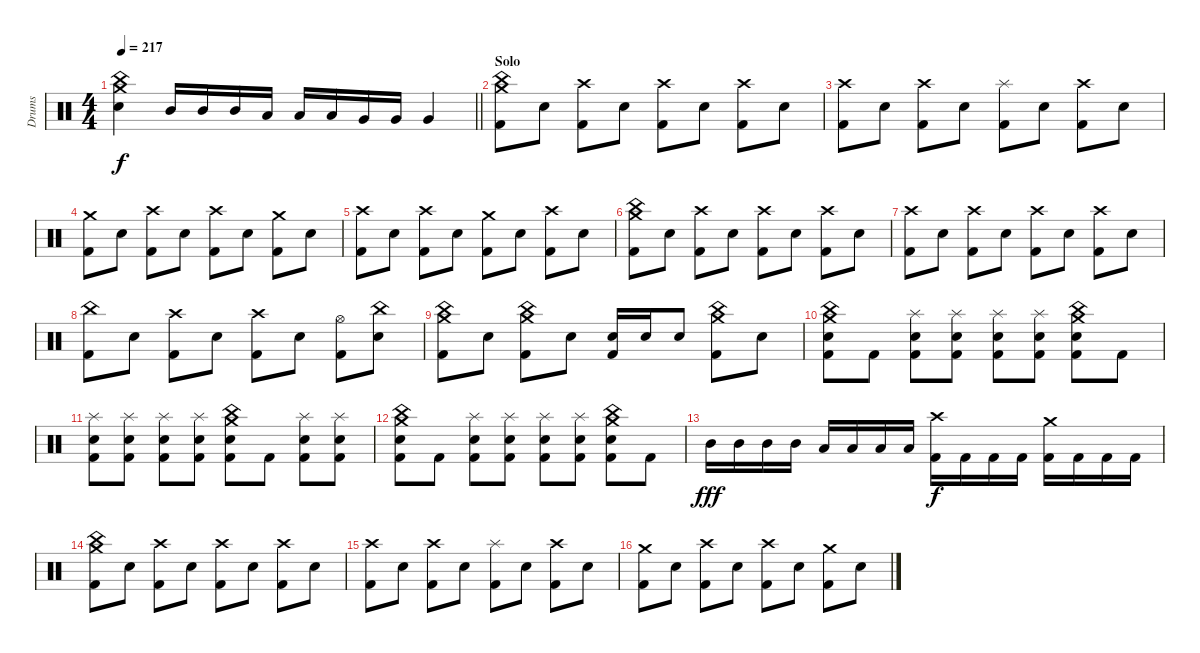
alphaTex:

\track ("Drums" "Drums") {instrument percussion}
\staff {score}
\articulation defaults
\ts (4 4)
\tempo 217
\clef neutral
\barLineRight lightlight
\ks c
("China (hit)" "Crash medium (hit)" "Electric Snare (hit)").4{dy f} "Mid Tom (hit)".16 "Mid Tom (hit)".16 "Mid Tom (hit)".16 "Low Tom (hit)".16 "Low Tom (hit)".16 "Low Tom (hit)".16 "Very Low Tom (hit)".16 "Very Low Tom (hit)".16 "Very Low Tom (hit)".4 |
\section ("" "Solo")
("China (hit)" "Crash medium (hit)" "Kick (hit) 2").8 "Electric Snare (hit)".8 ("Crash high (hit)" "Kick (hit) 2").8 "Electric Snare (hit)".8 ("Crash high (hit)" "Kick (hit) 2").8 "Electric Snare (hit)".8 ("Crash high (hit)" "Kick (hit) 2").8 "Electric Snare (hit)".8 |
("Crash high (hit)" "Kick (hit) 2").8 "Electric Snare (hit)".8 ("Crash high (hit)" "Kick (hit) 2").8 "Electric Snare (hit)".8 ("Splash (hit)" "Kick (hit) 2").8 "Electric Snare (hit)".8 ("Crash high (hit)" "Kick (hit) 2").8 "Electric Snare (hit)".8 |
("Crash medium (hit)" "Kick (hit) 2").8 "Electric Snare (hit)".8 ("Crash high (hit)" "Kick (hit) 2").8 "Electric Snare (hit)".8 ("Crash high (hit)" "Kick (hit) 2").8 "Electric Snare (hit)".8 ("Crash medium (hit)" "Kick (hit) 2").8 "Electric Snare (hit)".8 |
("Crash high (hit)" "Kick (hit) 2").8 "Electric Snare (hit)".8 ("Crash high (hit)" "Kick (hit) 2").8 "Electric Snare (hit)".8 ("Crash medium (hit)" "Kick (hit) 2").8 "Electric Snare (hit)".8 ("Crash high (hit)" "Kick (hit) 2").8 "Electric Snare (hit)".8 |
("China (hit)" "Crash medium (hit)" "Kick (hit) 2").8 "Electric Snare (hit)".8 ("Crash high (hit)" "Kick (hit) 2").8 "Electric Snare (hit)".8 ("Crash high (hit)" "Kick (hit) 2").8 "Electric Snare (hit)".8 ("Crash high (hit)" "Kick (hit) 2").8 "Electric Snare (hit)".8 |
("Crash high (hit)" "Kick (hit) 2").8 "Electric Snare (hit)".8 ("Crash high (hit)" "Kick (hit) 2").8 "Electric Snare (hit)".8 ("Crash high (hit)" "Kick (hit) 2").8 "Electric Snare (hit)".8 ("Crash high (hit)" "Kick (hit) 2").8 "Electric Snare (hit)".8 |
("China (hit)" "Kick (hit) 2").8 "Electric Snare (hit)".8 ("Crash high (hit)" "Kick (hit) 2").8 "Electric Snare (hit)".8 ("Crash high (hit)" "Kick (hit) 2").8 "Electric Snare (hit)".8 ("Hi-Hat (open)" "Kick (hit) 2").8 ("China (hit)" "Electric Snare (hit)").8 |
("China (hit)" "Crash medium (hit)" "Kick (hit) 2").8 "Electric Snare (hit)".8 ("China (hit)" "Crash medium (hit)" "Kick (hit) 2").8 "Electric Snare (hit)".8 ("Electric Snare (hit)" "Kick (hit) 2").16 "Electric Snare (hit)".16 "Electric Snare (hit)".8 ("China (hit)" "Crash medium (hit)" "Kick (hit) 2").8 "Electric Snare (hit)".8 |
("China (hit)" "Crash medium (hit)" "Electric Snare (hit)" "Kick (hit) 2").8 "Kick (hit) 2".8 ("Splash (hit)" "Electric Snare (hit)" "Kick (hit) 2").8 ("Splash (hit)" "Electric Snare (hit)" "Kick (hit) 2").8 ("Splash (hit)" "Electric Snare (hit)" "Kick (hit) 2").8 ("Splash (hit)" "Electric Snare (hit)" "Kick (hit) 2").8 ("China (hit)" "Crash medium (hit)" "Electric Snare (hit)" "Kick (hit) 2").8 "Kick (hit) 2".8 |
("Splash (hit)" "Electric Snare (hit)" "Kick (hit) 2").8 ("Splash (hit)" "Electric Snare (hit)" "Kick (hit) 2").8 ("Splash (hit)" "Electric Snare (hit)" "Kick (hit) 2").8 ("Splash (hit)" "Electric Snare (hit)" "Kick (hit) 2").8 ("Crash medium (hit)" "China (hit)" "Electric Snare (hit)" "Kick (hit) 2").8 "Kick (hit) 2".8 ("Splash (hit)" "Electric Snare (hit)" "Kick (hit) 2").8 ("Splash (hit)" "Electric Snare (hit)" "Kick (hit) 2").8 |
("China (hit)" "Crash medium (hit)" "Electric Snare (hit)" "Kick (hit) 2").8 "Kick (hit) 2".8 ("Splash (hit)" "Electric Snare (hit)" "Kick (hit) 2").8 ("Splash (hit)" "Electric Snare (hit)" "Kick (hit) 2").8 ("Splash (hit)" "Electric Snare (hit)" "Kick (hit) 2").8 ("Splash (hit)" "Electric Snare (hit)" "Kick (hit) 2").8 ("China (hit)" "Crash medium (hit)" "Electric Snare (hit)" "Kick (hit) 2").8 "Kick (hit) 2".8 |
"Mid Tom (hit)".16{dy fff} "Mid Tom (hit)".16 "Mid Tom (hit)".16 "Mid Tom (hit)".16 "Low Tom (hit)".16 "Low Tom (hit)".16 "Low Tom (hit)".16 "Low Tom (hit)".16 ("Crash high (hit)" "Kick (hit) 2").16{dy f} "Kick (hit) 2".16 "Kick (hit) 2".16 "Kick (hit) 2".16 ("Crash medium (hit)" "Kick (hit) 2").16 "Kick (hit) 2".16 "Kick (hit) 2".16 "Kick (hit) 2".16 |
("China (hit)" "Crash medium (hit)" "Kick (hit) 2").8 "Electric Snare (hit)".8 ("Crash high (hit)" "Kick (hit) 2").8 "Electric Snare (hit)".8 ("Crash high (hit)" "Kick (hit) 2").8 "Electric Snare (hit)".8 ("Crash high (hit)" "Kick (hit) 2").8 "Electric Snare (hit)".8 |
("Crash high (hit)" "Kick (hit) 2").8 "Electric Snare (hit)".8 ("Crash high (hit)" "Kick (hit) 2").8 "Electric Snare (hit)".8 ("Splash (hit)" "Kick (hit) 2").8 "Electric Snare (hit)".8 ("Crash high (hit)" "Kick (hit) 2").8 "Electric Snare (hit)".8 |
("Crash medium (hit)" "Kick (hit) 2").8 "Electric Snare (hit)".8 ("Crash high (hit)" "Kick (hit) 2").8 "Electric Snare (hit)".8 ("Crash high (hit)" "Kick (hit) 2").8 "Electric Snare (hit)".8 ("Crash medium (hit)" "Kick (hit) 2").8 "Electric Snare (hit)".8
